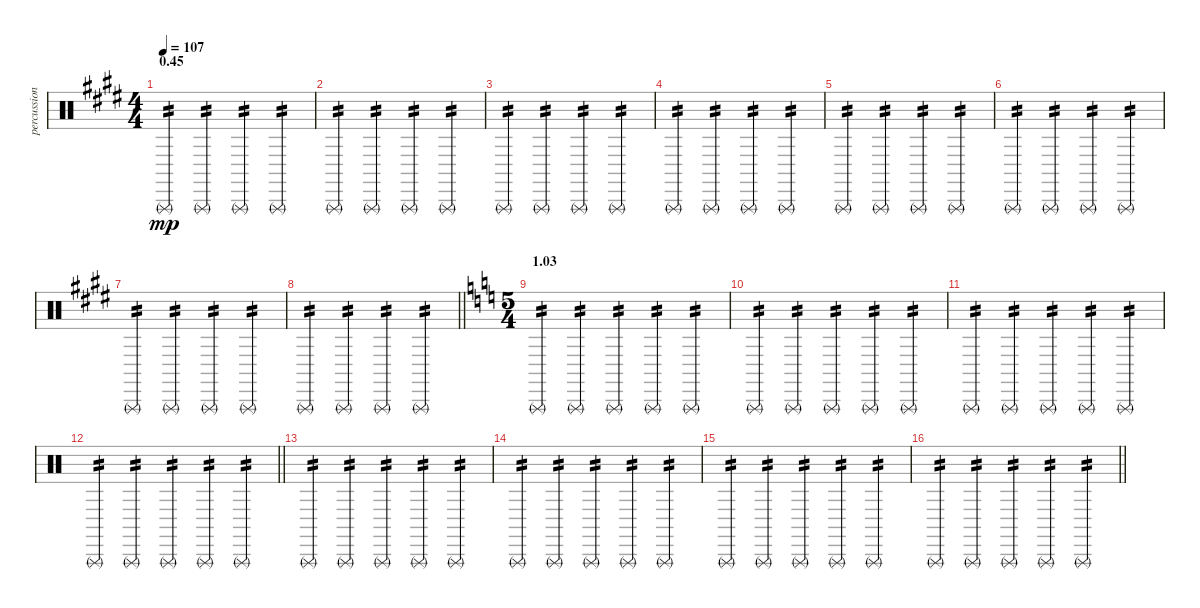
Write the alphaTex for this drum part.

\track ("percussion" "percussion") {instrument percussion}
\staff {score}
\articulation defaults
\ts (4 4)
\section ("" "0.45")
\tempo 107
\clef neutral
\ks c#minor "Triangle (rnute)".4{tp 2 dy mp} "Triangle (rnute)".4{tp 2} "Triangle (rnute)".4{tp 2} "Triangle (rnute)".4{tp 2}
|
"Triangle (rnute)".4{tp 2} "Triangle (rnute)".4{tp 2} "Triangle (rnute)".4{tp 2} "Triangle (rnute)".4{tp 2} |
"Triangle (rnute)".4{tp 2} "Triangle (rnute)".4{tp 2} "Triangle (rnute)".4{tp 2} "Triangle (rnute)".4{tp 2} |
"Triangle (rnute)".4{tp 2} "Triangle (rnute)".4{tp 2} "Triangle (rnute)".4{tp 2} "Triangle (rnute)".4{tp 2} |
"Triangle (rnute)".4{tp 2} "Triangle (rnute)".4{tp 2} "Triangle (rnute)".4{tp 2} "Triangle (rnute)".4{tp 2} |
"Triangle (rnute)".4{tp 2} "Triangle (rnute)".4{tp 2} "Triangle (rnute)".4{tp 2} "Triangle (rnute)".4{tp 2} |
"Triangle (rnute)".4{tp 2} "Triangle (rnute)".4{tp 2} "Triangle (rnute)".4{tp 2} "Triangle (rnute)".4{tp 2} |
\barLineRight lightlight "Triangle (rnute)".4{tp 2} "Triangle (rnute)".4{tp 2} "Triangle (rnute)".4{tp 2} "Triangle (rnute)".4{tp 2}
|
\ts (5 4)
\section ("" "1.03")
\ks c "Triangle (rnute)".4{tp 2} "Triangle (rnute)".4{tp 2} "Triangle (rnute)".4{tp 2} "Triangle (rnute)".4{tp 2} "Triangle (rnute)".4{tp 2}
|
"Triangle (rnute)".4{tp 2} "Triangle (rnute)".4{tp 2} "Triangle (rnute)".4{tp 2} "Triangle (rnute)".4{tp 2} "Triangle (rnute)".4{tp 2} |
"Triangle (rnute)".4{tp 2} "Triangle (rnute)".4{tp 2} "Triangle (rnute)".4{tp 2} "Triangle (rnute)".4{tp 2} "Triangle (rnute)".4{tp 2} |
\barLineRight lightlight "Triangle (rnute)".4{tp 2} "Triangle (rnute)".4{tp 2} "Triangle (rnute)".4{tp 2} "Triangle (rnute)".4{tp 2} "Triangle (rnute)".4{tp 2}
|
"Triangle (rnute)".4{tp 2} "Triangle (rnute)".4{tp 2} "Triangle (rnute)".4{tp 2} "Triangle (rnute)".4{tp 2} "Triangle (rnute)".4{tp 2} |
"Triangle (rnute)".4{tp 2} "Triangle (rnute)".4{tp 2} "Triangle (rnute)".4{tp 2} "Triangle (rnute)".4{tp 2} "Triangle (rnute)".4{tp 2} |
"Triangle (rnute)".4{tp 2} "Triangle (rnute)".4{tp 2} "Triangle (rnute)".4{tp 2} "Triangle (rnute)".4{tp 2} "Triangle (rnute)".4{tp 2} |
\barLineRight lightlight "Triangle (rnute)".4{tp 2} "Triangle (rnute)".4{tp 2} "Triangle (rnute)".4{tp 2} "Triangle (rnute)".4{tp 2} "Triangle (rnute)".4{tp 2}
